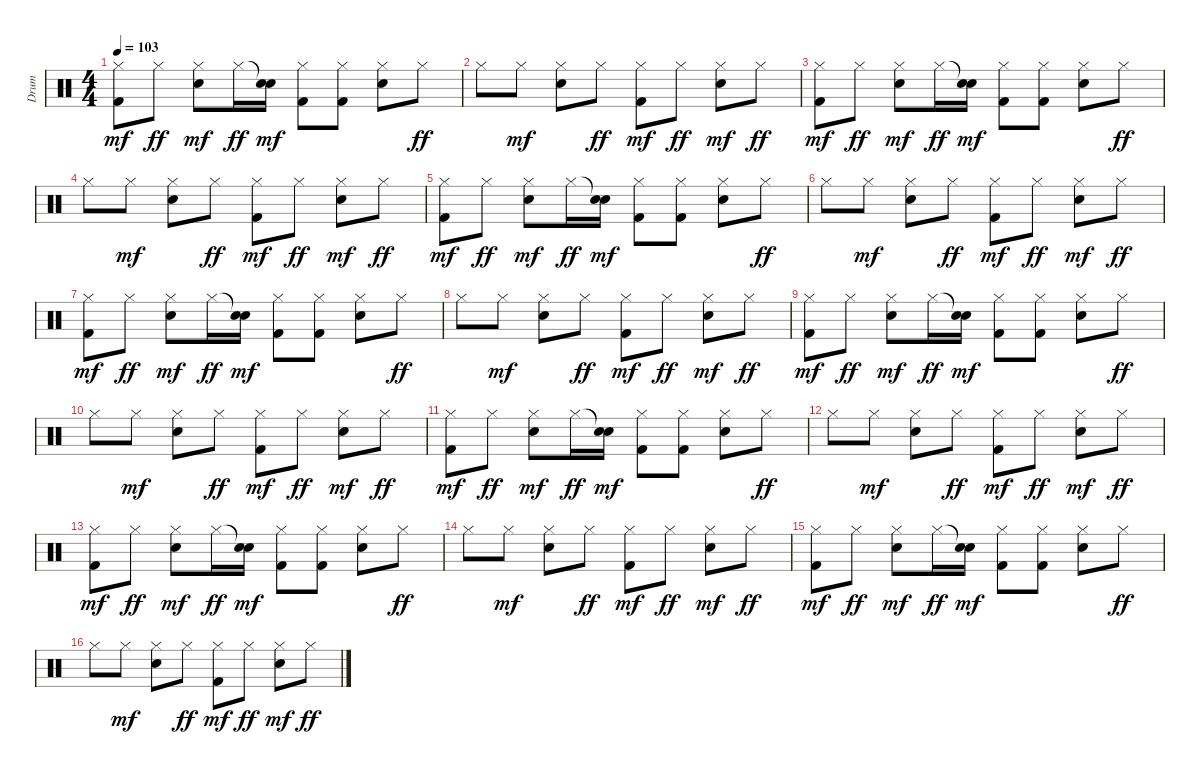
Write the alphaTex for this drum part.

\track ("Drum" "Drum") {instrument percussion}
\staff {score}
\articulation defaults
\ts (4 4)
\tempo 103
\clef neutral
\ks c
("Hi-Hat (closed)" "Kick (hit) 2").8{dy mf} "Hi-Hat (closed)".8{dy ff} ("Hi-Hat (closed)" "Electric Snare (hit)").8{dy mf} "Hi-Hat (closed)".16{dy ff} ("Snare (hit)"{t} "Electric Snare (hit)").16{dy mf} ("Hi-Hat (closed)" "Kick (hit) 2").8 ("Hi-Hat (closed)" "Kick (hit) 2").8 ("Hi-Hat (closed)" "Electric Snare (hit)").8 "Hi-Hat (closed)".8{dy ff} |
"Hi-Hat (closed)".8 "Hi-Hat (closed)".8{dy mf} ("Hi-Hat (closed)" "Electric Snare (hit)").8 "Hi-Hat (closed)".8{dy ff} ("Hi-Hat (closed)" "Kick (hit) 2").8{dy mf} "Hi-Hat (closed)".8{dy ff} ("Hi-Hat (closed)" "Electric Snare (hit)").8{dy mf} "Hi-Hat (closed)".8{dy ff} |
("Hi-Hat (closed)" "Kick (hit) 2").8{dy mf} "Hi-Hat (closed)".8{dy ff} ("Hi-Hat (closed)" "Electric Snare (hit)").8{dy mf} "Hi-Hat (closed)".16{dy ff} ("Snare (hit)"{t} "Electric Snare (hit)").16{dy mf} ("Hi-Hat (closed)" "Kick (hit) 2").8 ("Hi-Hat (closed)" "Kick (hit) 2").8 ("Hi-Hat (closed)" "Electric Snare (hit)").8 "Hi-Hat (closed)".8{dy ff} |
"Hi-Hat (closed)".8 "Hi-Hat (closed)".8{dy mf} ("Hi-Hat (closed)" "Electric Snare (hit)").8 "Hi-Hat (closed)".8{dy ff} ("Hi-Hat (closed)" "Kick (hit) 2").8{dy mf} "Hi-Hat (closed)".8{dy ff} ("Hi-Hat (closed)" "Electric Snare (hit)").8{dy mf} "Hi-Hat (closed)".8{dy ff} |
("Hi-Hat (closed)" "Kick (hit) 2").8{dy mf} "Hi-Hat (closed)".8{dy ff} ("Hi-Hat (closed)" "Electric Snare (hit)").8{dy mf} "Hi-Hat (closed)".16{dy ff} ("Snare (hit)"{t} "Electric Snare (hit)").16{dy mf} ("Hi-Hat (closed)" "Kick (hit) 2").8 ("Hi-Hat (closed)" "Kick (hit) 2").8 ("Hi-Hat (closed)" "Electric Snare (hit)").8 "Hi-Hat (closed)".8{dy ff} |
"Hi-Hat (closed)".8 "Hi-Hat (closed)".8{dy mf} ("Hi-Hat (closed)" "Electric Snare (hit)").8 "Hi-Hat (closed)".8{dy ff} ("Hi-Hat (closed)" "Kick (hit) 2").8{dy mf} "Hi-Hat (closed)".8{dy ff} ("Hi-Hat (closed)" "Electric Snare (hit)").8{dy mf} "Hi-Hat (closed)".8{dy ff} |
("Hi-Hat (closed)" "Kick (hit) 2").8{dy mf} "Hi-Hat (closed)".8{dy ff} ("Hi-Hat (closed)" "Electric Snare (hit)").8{dy mf} "Hi-Hat (closed)".16{dy ff} ("Snare (hit)"{t} "Electric Snare (hit)").16{dy mf} ("Hi-Hat (closed)" "Kick (hit) 2").8 ("Hi-Hat (closed)" "Kick (hit) 2").8 ("Hi-Hat (closed)" "Electric Snare (hit)").8 "Hi-Hat (closed)".8{dy ff} |
"Hi-Hat (closed)".8 "Hi-Hat (closed)".8{dy mf} ("Hi-Hat (closed)" "Electric Snare (hit)").8 "Hi-Hat (closed)".8{dy ff} ("Hi-Hat (closed)" "Kick (hit) 2").8{dy mf} "Hi-Hat (closed)".8{dy ff} ("Hi-Hat (closed)" "Electric Snare (hit)").8{dy mf} "Hi-Hat (closed)".8{dy ff} |
("Hi-Hat (closed)" "Kick (hit) 2").8{dy mf} "Hi-Hat (closed)".8{dy ff} ("Hi-Hat (closed)" "Electric Snare (hit)").8{dy mf} "Hi-Hat (closed)".16{dy ff} ("Snare (hit)"{t} "Electric Snare (hit)").16{dy mf} ("Hi-Hat (closed)" "Kick (hit) 2").8 ("Hi-Hat (closed)" "Kick (hit) 2").8 ("Hi-Hat (closed)" "Electric Snare (hit)").8 "Hi-Hat (closed)".8{dy ff} |
"Hi-Hat (closed)".8 "Hi-Hat (closed)".8{dy mf} ("Hi-Hat (closed)" "Electric Snare (hit)").8 "Hi-Hat (closed)".8{dy ff} ("Hi-Hat (closed)" "Kick (hit) 2").8{dy mf} "Hi-Hat (closed)".8{dy ff} ("Hi-Hat (closed)" "Electric Snare (hit)").8{dy mf} "Hi-Hat (closed)".8{dy ff} |
("Hi-Hat (closed)" "Kick (hit) 2").8{dy mf} "Hi-Hat (closed)".8{dy ff} ("Hi-Hat (closed)" "Electric Snare (hit)").8{dy mf} "Hi-Hat (closed)".16{dy ff} ("Snare (hit)"{t} "Electric Snare (hit)").16{dy mf} ("Hi-Hat (closed)" "Kick (hit) 2").8 ("Hi-Hat (closed)" "Kick (hit) 2").8 ("Hi-Hat (closed)" "Electric Snare (hit)").8 "Hi-Hat (closed)".8{dy ff} |
"Hi-Hat (closed)".8 "Hi-Hat (closed)".8{dy mf} ("Hi-Hat (closed)" "Electric Snare (hit)").8 "Hi-Hat (closed)".8{dy ff} ("Hi-Hat (closed)" "Kick (hit) 2").8{dy mf} "Hi-Hat (closed)".8{dy ff} ("Hi-Hat (closed)" "Electric Snare (hit)").8{dy mf} "Hi-Hat (closed)".8{dy ff} |
("Hi-Hat (closed)" "Kick (hit) 2").8{dy mf} "Hi-Hat (closed)".8{dy ff} ("Hi-Hat (closed)" "Electric Snare (hit)").8{dy mf} "Hi-Hat (closed)".16{dy ff} ("Snare (hit)"{t} "Electric Snare (hit)").16{dy mf} ("Hi-Hat (closed)" "Kick (hit) 2").8 ("Hi-Hat (closed)" "Kick (hit) 2").8 ("Hi-Hat (closed)" "Electric Snare (hit)").8 "Hi-Hat (closed)".8{dy ff} |
"Hi-Hat (closed)".8 "Hi-Hat (closed)".8{dy mf} ("Hi-Hat (closed)" "Electric Snare (hit)").8 "Hi-Hat (closed)".8{dy ff} ("Hi-Hat (closed)" "Kick (hit) 2").8{dy mf} "Hi-Hat (closed)".8{dy ff} ("Hi-Hat (closed)" "Electric Snare (hit)").8{dy mf} "Hi-Hat (closed)".8{dy ff} |
("Hi-Hat (closed)" "Kick (hit) 2").8{dy mf} "Hi-Hat (closed)".8{dy ff} ("Hi-Hat (closed)" "Electric Snare (hit)").8{dy mf} "Hi-Hat (closed)".16{dy ff} ("Snare (hit)"{t} "Electric Snare (hit)").16{dy mf} ("Hi-Hat (closed)" "Kick (hit) 2").8 ("Hi-Hat (closed)" "Kick (hit) 2").8 ("Hi-Hat (closed)" "Electric Snare (hit)").8 "Hi-Hat (closed)".8{dy ff} |
"Hi-Hat (closed)".8 "Hi-Hat (closed)".8{dy mf} ("Hi-Hat (closed)" "Electric Snare (hit)").8 "Hi-Hat (closed)".8{dy ff} ("Hi-Hat (closed)" "Kick (hit) 2").8{dy mf} "Hi-Hat (closed)".8{dy ff} ("Hi-Hat (closed)" "Electric Snare (hit)").8{dy mf} "Hi-Hat (closed)".8{dy ff}
